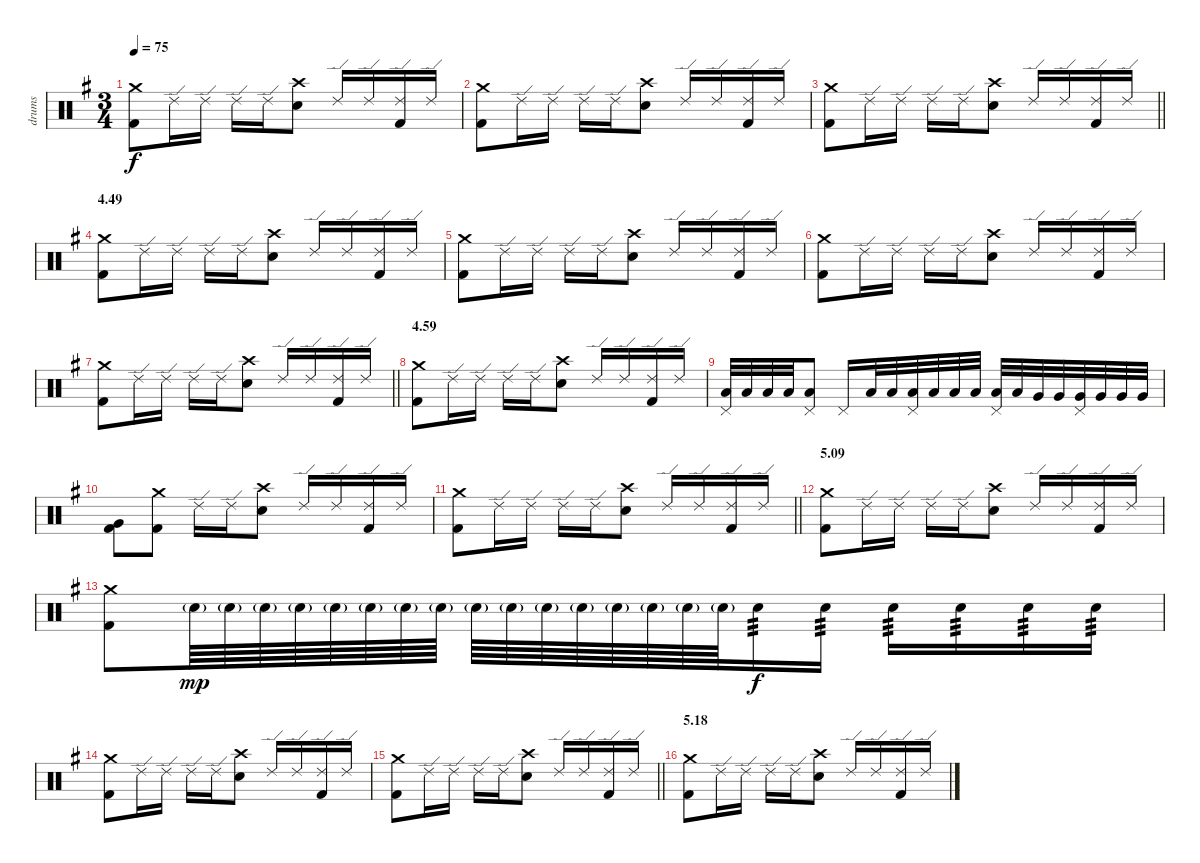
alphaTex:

\track ("drums" "drums") {instrument percussion}
\staff {score}
\articulation defaults
\ts (3 4)
\tempo 75
\clef neutral
\ks g
("Crash medium (hit)" "Kick (hit) 2").8{dy f} "Ride (edge) 2".16 "Ride (edge) 2".16 "Ride (edge) 2".16 "Ride (edge) 2".16 ("Crash high (hit)" "Electric Snare (hit)").8 "Ride (edge) 2".16 "Ride (edge) 2".16 ("Ride (edge) 2" "Kick (hit) 2").16 "Ride (edge) 2".16 |
("Crash medium (hit)" "Kick (hit) 2").8 "Ride (edge) 2".16 "Ride (edge) 2".16 "Ride (edge) 2".16 "Ride (edge) 2".16 ("Crash high (hit)" "Electric Snare (hit)").8 "Ride (edge) 2".16 "Ride (edge) 2".16 ("Ride (edge) 2" "Kick (hit) 2").16 "Ride (edge) 2".16 |
\barLineRight lightlight
("Crash medium (hit)" "Kick (hit) 2").8 "Ride (edge) 2".16 "Ride (edge) 2".16 "Ride (edge) 2".16 "Ride (edge) 2".16 ("Crash high (hit)" "Electric Snare (hit)").8 "Ride (edge) 2".16 "Ride (edge) 2".16 ("Ride (edge) 2" "Kick (hit) 2").16 "Ride (edge) 2".16 |
\section ("" "4.49")
("Crash medium (hit)" "Kick (hit) 2").8 "Ride (edge) 2".16 "Ride (edge) 2".16 "Ride (edge) 2".16 "Ride (edge) 2".16 ("Crash high (hit)" "Electric Snare (hit)").8 "Ride (edge) 2".16 "Ride (edge) 2".16 ("Ride (edge) 2" "Kick (hit) 2").16 "Ride (edge) 2".16 |
("Crash medium (hit)" "Kick (hit) 2").8 "Ride (edge) 2".16 "Ride (edge) 2".16 "Ride (edge) 2".16 "Ride (edge) 2".16 ("Crash high (hit)" "Electric Snare (hit)").8 "Ride (edge) 2".16 "Ride (edge) 2".16 ("Ride (edge) 2" "Kick (hit) 2").16 "Ride (edge) 2".16 |
("Crash medium (hit)" "Kick (hit) 2").8 "Ride (edge) 2".16 "Ride (edge) 2".16 "Ride (edge) 2".16 "Ride (edge) 2".16 ("Crash high (hit)" "Electric Snare (hit)").8 "Ride (edge) 2".16 "Ride (edge) 2".16 ("Ride (edge) 2" "Kick (hit) 2").16 "Ride (edge) 2".16 |
\barLineRight lightlight
("Crash medium (hit)" "Kick (hit) 2").8 "Ride (edge) 2".16 "Ride (edge) 2".16 "Ride (edge) 2".16 "Ride (edge) 2".16 ("Crash high (hit)" "Electric Snare (hit)").8 "Ride (edge) 2".16 "Ride (edge) 2".16 ("Ride (edge) 2" "Kick (hit) 2").16 "Ride (edge) 2".16 |
\section ("" "4.59")
("Crash medium (hit)" "Kick (hit) 2").8 "Ride (edge) 2".16 "Ride (edge) 2".16 "Ride (edge) 2".16 "Ride (edge) 2".16 ("Crash high (hit)" "Electric Snare (hit)").8 "Ride (edge) 2".16 "Ride (edge) 2".16 ("Ride (edge) 2" "Kick (hit) 2").16 "Ride (edge) 2".16 |
("Pedal Hi-Hat (hit)" "Low Tom (hit)").32 "Low Tom (hit)".32 "Low Tom (hit)".32 "Low Tom (hit)".32 ("Pedal Hi-Hat (hit)" "Low Tom (hit)").8 "Pedal Hi-Hat (hit)".16 "Low Tom (hit)".32 "Low Tom (hit)".32 ("Pedal Hi-Hat (hit)" "Low Tom (hit)").32 "Low Tom (hit)".32 "Low Tom (hit)".32 "Low Tom (hit)".32 ("Pedal Hi-Hat (hit)" "Low Tom (hit)").32 "Low Tom (hit)".32 "Very Low Tom (hit)".32 "Very Low Tom (hit)".32 ("Pedal Hi-Hat (hit)" "Very Low Tom (hit)").32 "Very Low Tom (hit)".32 "Very Low Tom (hit)".32 "Very Low Tom (hit)".32 |
("Very Low Tom (hit)" "Kick (hit) 2").8 ("Crash medium (hit)" "Kick (hit) 2").8 "Ride (edge) 2".16 "Ride (edge) 2".16 ("Crash high (hit)" "Electric Snare (hit)").8 "Ride (edge) 2".16 "Ride (edge) 2".16 ("Ride (edge) 2" "Kick (hit) 2").16 "Ride (edge) 2".16 |
\barLineRight lightlight
("Crash medium (hit)" "Kick (hit) 2").8 "Ride (edge) 2".16 "Ride (edge) 2".16 "Ride (edge) 2".16 "Ride (edge) 2".16 ("Crash high (hit)" "Electric Snare (hit)").8 "Ride (edge) 2".16 "Ride (edge) 2".16 ("Ride (edge) 2" "Kick (hit) 2").16 "Ride (edge) 2".16 |
\section ("" "5.09")
("Crash medium (hit)" "Kick (hit) 2").8 "Ride (edge) 2".16 "Ride (edge) 2".16 "Ride (edge) 2".16 "Ride (edge) 2".16 ("Crash high (hit)" "Electric Snare (hit)").8 "Ride (edge) 2".16 "Ride (edge) 2".16 ("Ride (edge) 2" "Kick (hit) 2").16 "Ride (edge) 2".16 |
("Crash medium (hit)" "Kick (hit) 2").8 "Electric Snare (hit)"{g}.64{dy mp} "Electric Snare (hit)"{g}.64 "Electric Snare (hit)"{g}.64 "Electric Snare (hit)"{g}.64 "Electric Snare (hit)"{g}.64 "Electric Snare (hit)"{g}.64 "Electric Snare (hit)"{g}.64 "Electric Snare (hit)"{g}.64 "Electric Snare (hit)"{g}.64 "Electric Snare (hit)"{g}.64 "Electric Snare (hit)"{g}.64 "Electric Snare (hit)"{g}.64 "Electric Snare (hit)"{g}.64 "Electric Snare (hit)"{g}.64 "Electric Snare (hit)"{g}.64 "Electric Snare (hit)"{g}.64 "Electric Snare (hit)".16{tp 3 dy f} "Electric Snare (hit)".16{tp 3} "Electric Snare (hit)".16{tp 3} "Electric Snare (hit)".16{tp 3} "Electric Snare (hit)".16{tp 3} "Electric Snare (hit)".16{tp 3} |
("Crash medium (hit)" "Kick (hit) 2").8 "Ride (edge) 2".16 "Ride (edge) 2".16 "Ride (edge) 2".16 "Ride (edge) 2".16 ("Crash high (hit)" "Electric Snare (hit)").8 "Ride (edge) 2".16 "Ride (edge) 2".16 ("Ride (edge) 2" "Kick (hit) 2").16 "Ride (edge) 2".16 |
\barLineRight lightlight
("Crash medium (hit)" "Kick (hit) 2").8 "Ride (edge) 2".16 "Ride (edge) 2".16 "Ride (edge) 2".16 "Ride (edge) 2".16 ("Crash high (hit)" "Electric Snare (hit)").8 "Ride (edge) 2".16 "Ride (edge) 2".16 ("Ride (edge) 2" "Kick (hit) 2").16 "Ride (edge) 2".16 |
\section ("" "5.18")
("Crash medium (hit)" "Kick (hit) 2").8 "Ride (edge) 2".16 "Ride (edge) 2".16 "Ride (edge) 2".16 "Ride (edge) 2".16 ("Crash high (hit)" "Electric Snare (hit)").8 "Ride (edge) 2".16 "Ride (edge) 2".16 ("Ride (edge) 2" "Kick (hit) 2").16 "Ride (edge) 2".16
